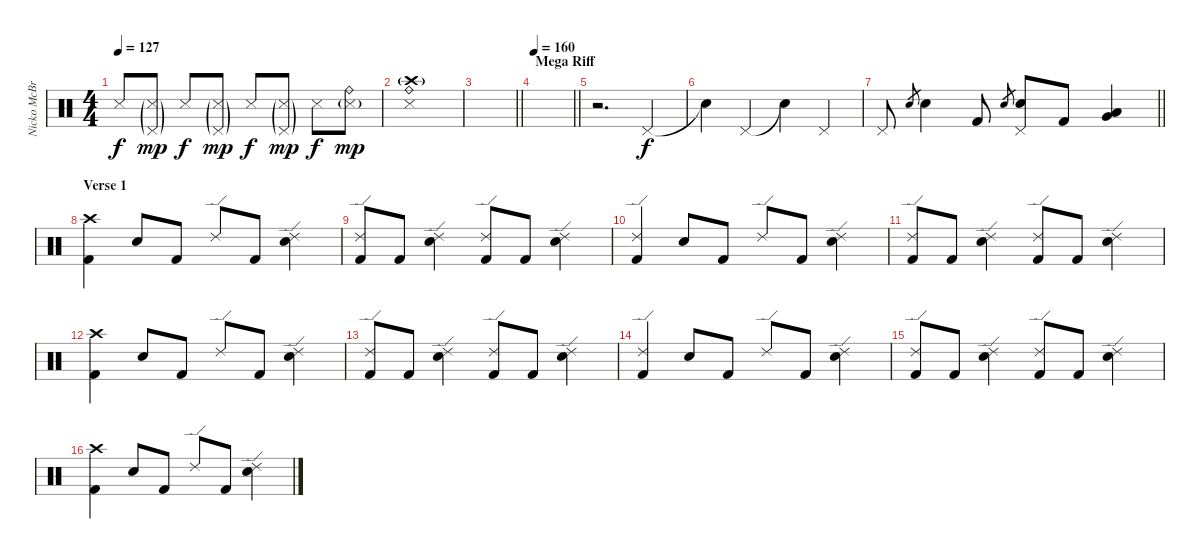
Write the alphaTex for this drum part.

\track ("Nicko McBrain" "Nicko McBr") {instrument percussion}
\staff {score}
\articulation defaults
\ts (4 4)
\tempo 127
\clef neutral
\ks c "Snare (side stick) 3".8{dy f}
("Pedal Hi-Hat (hit)"{g} "Snare (side stick) 3"{g}).8{dy mp} "Snare (side stick) 3".8{dy f} ("Pedal Hi-Hat (hit)"{g} "Snare (side stick) 3"{g}).8{dy mp} "Snare (side stick) 3".8{dy f} ("Pedal Hi-Hat (hit)"{g} "Snare (side stick) 3"{g}).8{dy mp} "Snare (side stick) 3".8{dy f} ("Ride (bell)" "Snare (side stick) 3"{g}).8{dy mp} |
("Ride (bell)" "Crash high (hit)"{g} "Snare (side stick) 3").1 |
\barLineRight lightlight
|
\section ("" "Mega Riff")
\tempo 160
\barLineRight lightlight
|
r.2{d} "Pedal Hi-Hat (hit)".4{dy f} |
"Snare (hit)"{t}.4 "Pedal Hi-Hat (hit)".4 "Snare (hit)"{t}.4 "Pedal Hi-Hat (hit)".4 |
\barLineRight lightlight "Pedal Hi-Hat (hit)".8 "Electric Snare (hit)".8{gr} "Electric Snare (hit)".4{volume 13} "Kick (hit) 2".8 "Electric Snare (hit)".8{gr}
("Pedal Hi-Hat (hit)" "Electric Snare (hit)").8 "Kick (hit) 2".8 ("Low Tom (hit)" "Very Low Tom (hit)").4 |
\section ("" "Verse 1")
("Crash high (hit)" "Kick (hit) 2").4 "Electric Snare (hit)".8 "Kick (hit) 2".8 "Ride (edge) 2".8 "Kick (hit) 2".8 ("Ride (edge) 2" "Electric Snare (hit)").4 |
("Ride (edge) 2" "Kick (hit) 2").8 "Kick (hit) 2".8 ("Ride (edge) 2" "Electric Snare (hit)").4 ("Ride (edge) 2" "Kick (hit) 2").8 "Kick (hit) 2".8 ("Ride (edge) 2" "Electric Snare (hit)").4 |
("Ride (edge) 2" "Kick (hit) 2").4 "Electric Snare (hit)".8 "Kick (hit) 2".8 "Ride (edge) 2".8 "Kick (hit) 2".8 ("Ride (edge) 2" "Electric Snare (hit)").4 |
("Ride (edge) 2" "Kick (hit) 2").8 "Kick (hit) 2".8 ("Ride (edge) 2" "Electric Snare (hit)").4 ("Ride (edge) 2" "Kick (hit) 2").8 "Kick (hit) 2".8 ("Ride (edge) 2" "Electric Snare (hit)").4 |
("Crash high (hit)" "Kick (hit) 2").4 "Electric Snare (hit)".8 "Kick (hit) 2".8 "Ride (edge) 2".8 "Kick (hit) 2".8 ("Ride (edge) 2" "Electric Snare (hit)").4 |
("Ride (edge) 2" "Kick (hit) 2").8 "Kick (hit) 2".8 ("Ride (edge) 2" "Electric Snare (hit)").4 ("Ride (edge) 2" "Kick (hit) 2").8 "Kick (hit) 2".8 ("Ride (edge) 2" "Electric Snare (hit)").4 |
("Ride (edge) 2" "Kick (hit) 2").4 "Electric Snare (hit)".8 "Kick (hit) 2".8 "Ride (edge) 2".8 "Kick (hit) 2".8 ("Ride (edge) 2" "Electric Snare (hit)").4 |
("Ride (edge) 2" "Kick (hit) 2").8 "Kick (hit) 2".8 ("Ride (edge) 2" "Electric Snare (hit)").4 ("Ride (edge) 2" "Kick (hit) 2").8 "Kick (hit) 2".8 ("Ride (edge) 2" "Electric Snare (hit)").4 |
("Crash high (hit)" "Kick (hit) 2").4 "Electric Snare (hit)".8 "Kick (hit) 2".8 "Ride (edge) 2".8 "Kick (hit) 2".8 ("Ride (edge) 2" "Electric Snare (hit)").4
